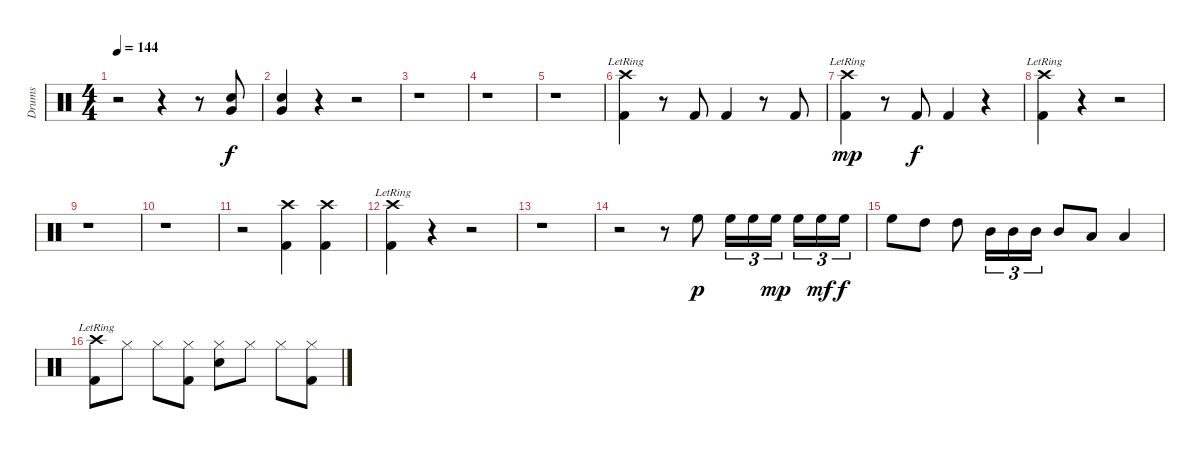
\track ("Drums" "Drums") {instrument percussion}
\staff {score}
\articulation defaults
\ts (4 4)
\tempo 144
\clef neutral
\ks c
r.2{dy f} r.4 r.8 ("Snare (hit) 2" "Very Low Tom (hit)").8 |
("Snare (hit) 2" "Very Low Tom (hit)").4 r.4 r.2 |
r.1 |
r.1 |
r.1 |
("Crash high (hit)"{lr} "Kick (hit) 2").4 r.8 "Kick (hit) 2".8 "Kick (hit) 2".4 r.8 "Kick (hit) 2".8 |
("Crash high (hit)"{lr} "Kick (hit) 2").4{dy mp} r.8 "Kick (hit) 2".8{dy f} "Kick (hit) 2".4 r.4 |
("Crash high (hit)"{lr} "Kick (hit) 2").4 r.4 r.2 |
r.1 |
r.1 |
r.2 ("Crash high (hit)" "Kick (hit) 2").4 ("Crash high (hit)" "Kick (hit) 2").4 |
("Crash high (hit)"{lr} "Kick (hit) 2").4 r.4 r.2 |
r.1 |
r.2 r.8 "High Floor Tom (hit)".8{dy p} "High Floor Tom (hit)".16{tu (3 2)} "High Floor Tom (hit)".16{tu (3 2)} "High Floor Tom (hit)".16{tu (3 2) dy mp} "High Floor Tom (hit)".16{tu (3 2)} "High Floor Tom (hit)".16{tu (3 2) dy mf} "High Floor Tom (hit)".16{tu (3 2) dy f} |
"High Floor Tom (hit)".8 "High Tom (hit)".8 "High Tom (hit)".8 "Mid Tom (hit)".16{tu (3 2)} "Mid Tom (hit)".16{tu (3 2)} "Mid Tom (hit)".16{tu (3 2)} "Mid Tom (hit)".8 "Low Tom (hit)".8 "Low Tom (hit)".4 |
("Crash high (hit)"{lr} "Kick (hit) 2").8 "Hi-Hat (closed)".8 "Hi-Hat (closed)".8 ("Hi-Hat (closed)" "Kick (hit) 2").8 ("Hi-Hat (closed)" "Snare (hit) 2").8 "Hi-Hat (closed)".8 "Hi-Hat (closed)".8 ("Hi-Hat (closed)" "Kick (hit) 2").8
